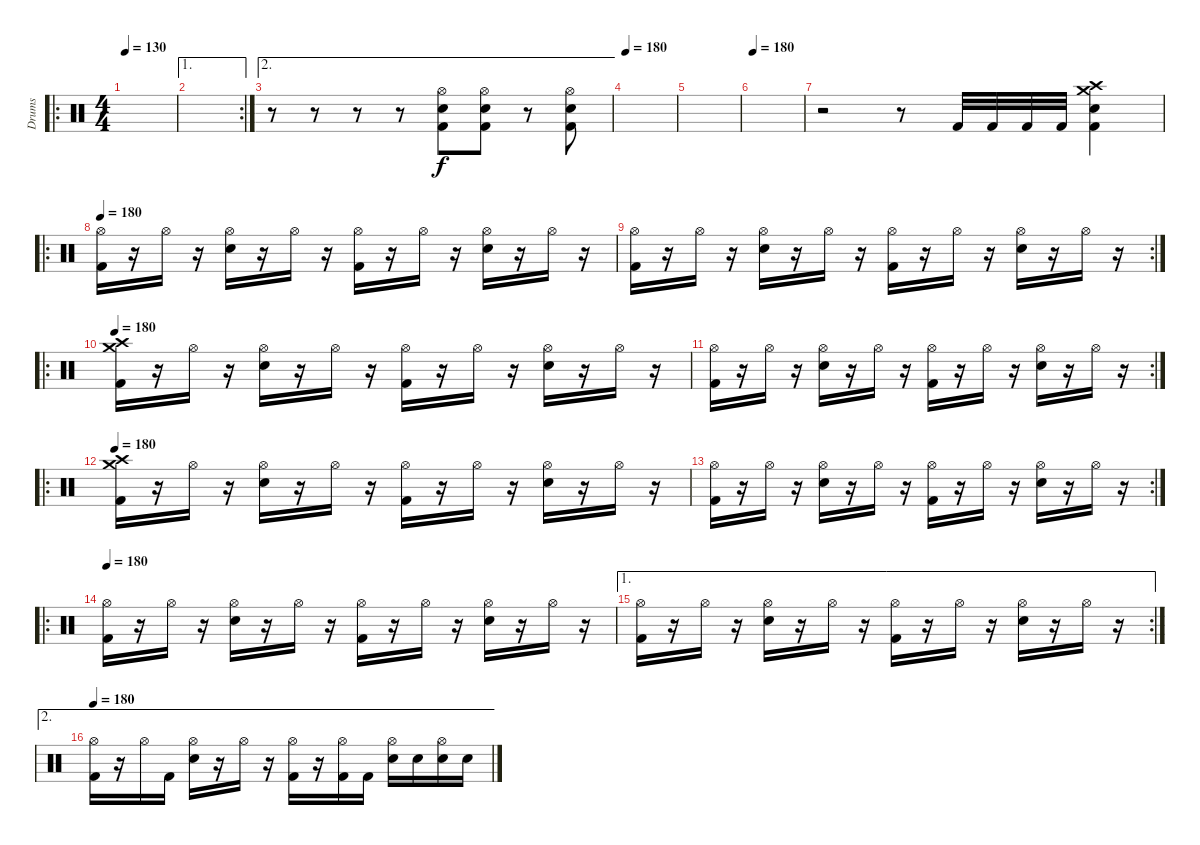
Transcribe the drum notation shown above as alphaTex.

\track ("Drums" "Drums") {instrument percussion}
\staff {score}
\articulation defaults
\ro
\ts (4 4)
\tempo 130
\tempo 180
\tempo 130
\clef neutral
\ks c
|
\ae 1
\rc 2
|
\ae 2
r.8 r.8 r.8 r.8 ("Hi-Hat (open)" "Snare (hit) 2" "Kick (hit) 2").8 ("Hi-Hat (open)" "Snare (hit) 2" "Kick (hit) 2").8 r.8 ("Hi-Hat (open)" "Snare (hit) 2" "Kick (hit) 2").8 |
\tempo 180
|
|
\tempo 180
|
r.2 r.8 "Kick (hit) 2".32 "Kick (hit) 2".32 "Kick (hit) 2".32 "Kick (hit) 2".32 ("Crash medium (hit)" "Crash high (hit)" "Snare (hit) 2" "Kick (hit) 2").4 |
\ro
\tempo 180
("Hi-Hat (open)" "Kick (hit) 2").16 r.16 "Hi-Hat (open)".16 r.16 ("Hi-Hat (open)" "Snare (hit) 2").16 r.16 "Hi-Hat (open)".16 r.16 ("Hi-Hat (open)" "Kick (hit) 2").16 r.16 "Hi-Hat (open)".16 r.16 ("Hi-Hat (open)" "Snare (hit) 2").16 r.16 "Hi-Hat (open)".16 r.16 |
\rc 2
("Hi-Hat (open)" "Kick (hit) 2").16 r.16 "Hi-Hat (open)".16 r.16 ("Hi-Hat (open)" "Snare (hit) 2").16 r.16 "Hi-Hat (open)".16 r.16 ("Hi-Hat (open)" "Kick (hit) 2").16 r.16 "Hi-Hat (open)".16 r.16 ("Hi-Hat (open)" "Snare (hit) 2").16 r.16 "Hi-Hat (open)".16 r.16 |
\ro
\tempo 180
("Crash medium (hit)" "Crash high (hit)" "Kick (hit) 2").16 r.16 "Hi-Hat (open)".16 r.16 ("Hi-Hat (open)" "Snare (hit) 2").16 r.16 "Hi-Hat (open)".16 r.16 ("Hi-Hat (open)" "Kick (hit) 2").16 r.16 "Hi-Hat (open)".16 r.16 ("Hi-Hat (open)" "Snare (hit) 2").16 r.16 "Hi-Hat (open)".16 r.16 |
\rc 2
("Hi-Hat (open)" "Kick (hit) 2").16 r.16 "Hi-Hat (open)".16 r.16 ("Hi-Hat (open)" "Snare (hit) 2").16 r.16 "Hi-Hat (open)".16 r.16 ("Hi-Hat (open)" "Kick (hit) 2").16 r.16 "Hi-Hat (open)".16 r.16 ("Hi-Hat (open)" "Snare (hit) 2").16 r.16 "Hi-Hat (open)".16 r.16 |
\ro
\tempo 180
("Crash high (hit)" "Crash medium (hit)" "Kick (hit) 2").16 r.16 "Hi-Hat (open)".16 r.16 ("Hi-Hat (open)" "Snare (hit) 2").16 r.16 "Hi-Hat (open)".16 r.16 ("Hi-Hat (open)" "Kick (hit) 2").16 r.16 "Hi-Hat (open)".16 r.16 ("Hi-Hat (open)" "Snare (hit) 2").16 r.16 "Hi-Hat (open)".16 r.16 |
\rc 2
("Hi-Hat (open)" "Kick (hit) 2").16 r.16 "Hi-Hat (open)".16 r.16 ("Hi-Hat (open)" "Snare (hit) 2").16 r.16 "Hi-Hat (open)".16 r.16 ("Hi-Hat (open)" "Kick (hit) 2").16 r.16 "Hi-Hat (open)".16 r.16 ("Hi-Hat (open)" "Snare (hit) 2").16 r.16 "Hi-Hat (open)".16 r.16 |
\ro
\tempo 180
("Hi-Hat (open)" "Kick (hit) 2").16 r.16 "Hi-Hat (open)".16 r.16 ("Hi-Hat (open)" "Snare (hit) 2").16 r.16 "Hi-Hat (open)".16 r.16 ("Hi-Hat (open)" "Kick (hit) 2").16 r.16 "Hi-Hat (open)".16 r.16 ("Hi-Hat (open)" "Snare (hit) 2").16 r.16 "Hi-Hat (open)".16 r.16 |
\ae 1
\rc 2
("Hi-Hat (open)" "Kick (hit) 2").16 r.16 "Hi-Hat (open)".16 r.16 ("Hi-Hat (open)" "Snare (hit) 2").16 r.16 "Hi-Hat (open)".16 r.16 ("Hi-Hat (open)" "Kick (hit) 2").16 r.16 "Hi-Hat (open)".16 r.16 ("Hi-Hat (open)" "Snare (hit) 2").16 r.16 "Hi-Hat (open)".16 r.16 |
\ae 2
\tempo 180
("Hi-Hat (open)" "Kick (hit) 2").16 r.16 "Hi-Hat (open)".16 "Kick (hit) 2".16 ("Hi-Hat (open)" "Snare (hit) 2").16 r.16 "Hi-Hat (open)".16 r.16 ("Hi-Hat (open)" "Kick (hit) 2").16 r.16 ("Hi-Hat (open)" "Kick (hit) 2").16 "Kick (hit) 2".16 ("Hi-Hat (open)" "Snare (hit) 2").16 "Snare (hit) 2".16 ("Hi-Hat (open)" "Snare (hit) 2").16 "Snare (hit) 2".16
